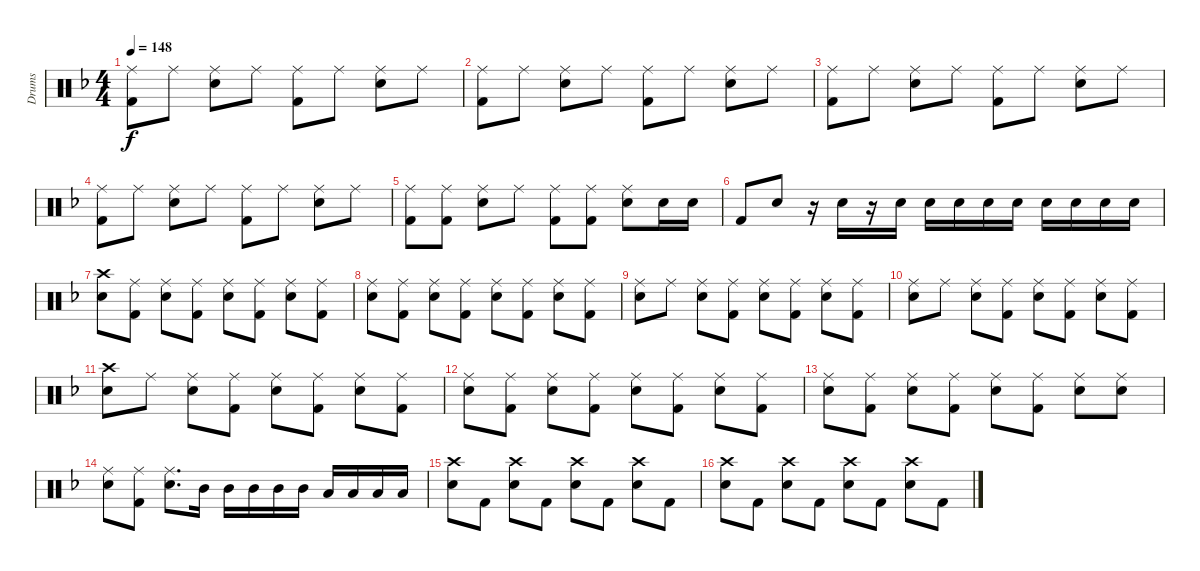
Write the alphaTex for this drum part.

\track ("Drums" "Drums") {instrument percussion}
\staff {score}
\articulation defaults
\ts (4 4)
\tempo 148
\clef neutral
\ks f
("Ride (middle)" "Kick (hit) 2").8{dy f} "Ride (middle)".8 ("Ride (middle)" "Snare (hit) 2").8 "Ride (middle)".8 ("Ride (middle)" "Kick (hit) 2").8 "Ride (middle)".8 ("Ride (middle)" "Snare (hit) 2").8 "Ride (middle)".8 |
("Ride (middle)" "Kick (hit) 2").8 "Ride (middle)".8 ("Ride (middle)" "Snare (hit) 2").8 "Ride (middle)".8 ("Ride (middle)" "Kick (hit) 2").8 "Ride (middle)".8 ("Ride (middle)" "Snare (hit) 2").8 "Ride (middle)".8 |
("Ride (middle)" "Kick (hit) 2").8 "Ride (middle)".8 ("Ride (middle)" "Snare (hit) 2").8 "Ride (middle)".8 ("Ride (middle)" "Kick (hit) 2").8 "Ride (middle)".8 ("Ride (middle)" "Snare (hit) 2").8 "Ride (middle)".8 |
("Ride (middle)" "Kick (hit) 2").8 "Ride (middle)".8 ("Ride (middle)" "Snare (hit) 2").8 "Ride (middle)".8 ("Ride (middle)" "Kick (hit) 2").8 "Ride (middle)".8 ("Ride (middle)" "Snare (hit) 2").8 "Ride (middle)".8 |
("Ride (middle)" "Kick (hit) 2").8 ("Ride (middle)" "Kick (hit) 2").8 ("Ride (middle)" "Snare (hit) 2").8 "Ride (middle)".8 ("Ride (middle)" "Kick (hit) 2").8 ("Ride (middle)" "Kick (hit) 2").8 ("Ride (middle)" "Snare (hit) 2").8 "Snare (hit) 2".16 "Snare (hit) 2".16 |
"Kick (hit) 2".8 "Snare (hit) 2".8 r.16 "Snare (hit) 2".16 r.16 "Snare (hit) 2".16 "Snare (hit) 2".16 "Snare (hit) 2".16 "Snare (hit) 2".16 "Snare (hit) 2".16 "Snare (hit) 2".16 "Snare (hit) 2".16 "Snare (hit) 2".16 "Snare (hit) 2".16 |
("Crash high (hit)" "Snare (hit) 2").8 ("Ride (middle)" "Kick (hit) 2").8 ("Ride (middle)" "Snare (hit) 2").8 ("Ride (middle)" "Kick (hit) 2").8 ("Ride (middle)" "Snare (hit) 2").8 ("Ride (middle)" "Kick (hit) 2").8 ("Ride (middle)" "Snare (hit) 2").8 ("Ride (middle)" "Kick (hit) 2").8 |
("Ride (middle)" "Snare (hit) 2").8 ("Ride (middle)" "Kick (hit) 2").8 ("Ride (middle)" "Snare (hit) 2").8 ("Ride (middle)" "Kick (hit) 2").8 ("Ride (middle)" "Snare (hit) 2").8 ("Ride (middle)" "Kick (hit) 2").8 ("Ride (middle)" "Snare (hit) 2").8 ("Ride (middle)" "Kick (hit) 2").8 |
("Ride (middle)" "Snare (hit) 2").8 "Ride (middle)".8 ("Ride (middle)" "Snare (hit) 2").8 ("Ride (middle)" "Kick (hit) 2").8 ("Ride (middle)" "Snare (hit) 2").8 ("Ride (middle)" "Kick (hit) 2").8 ("Ride (middle)" "Snare (hit) 2").8 ("Ride (middle)" "Kick (hit) 2").8 |
("Ride (middle)" "Snare (hit) 2").8 "Ride (middle)".8 ("Ride (middle)" "Snare (hit) 2").8 ("Ride (middle)" "Kick (hit) 2").8 ("Ride (middle)" "Snare (hit) 2").8 ("Ride (middle)" "Kick (hit) 2").8 ("Ride (middle)" "Snare (hit) 2").8 ("Ride (middle)" "Kick (hit) 2").8 |
("Crash high (hit)" "Snare (hit) 2").8 "Ride (middle)".8 ("Ride (middle)" "Snare (hit) 2").8 ("Ride (middle)" "Kick (hit) 2").8 ("Ride (middle)" "Snare (hit) 2").8 ("Ride (middle)" "Kick (hit) 2").8 ("Ride (middle)" "Snare (hit) 2").8 ("Ride (middle)" "Kick (hit) 2").8 |
("Ride (middle)" "Snare (hit) 2").8 ("Ride (middle)" "Kick (hit) 2").8 ("Ride (middle)" "Snare (hit) 2").8 ("Ride (middle)" "Kick (hit) 2").8 ("Ride (middle)" "Snare (hit) 2").8 ("Ride (middle)" "Kick (hit) 2").8 ("Ride (middle)" "Snare (hit) 2").8 ("Ride (middle)" "Kick (hit) 2").8 |
("Ride (middle)" "Snare (hit) 2").8 ("Ride (middle)" "Kick (hit) 2").8 ("Ride (middle)" "Snare (hit) 2").8 ("Ride (middle)" "Kick (hit) 2").8 ("Ride (middle)" "Snare (hit) 2").8 ("Ride (middle)" "Kick (hit) 2").8 ("Ride (middle)" "Snare (hit) 2").8 ("Ride (middle)" "Snare (hit) 2").8 |
("Ride (middle)" "Snare (hit) 2").8 ("Ride (middle)" "Kick (hit) 2").8 ("Ride (middle)" "Snare (hit) 2").8{d} "Mid Tom (hit)".16 "Mid Tom (hit)".16 "Mid Tom (hit)".16 "Mid Tom (hit)".16 "Mid Tom (hit)".16 "Low Tom (hit)".16 "Low Tom (hit)".16 "Low Tom (hit)".16 "Low Tom (hit)".16 |
("Crash high (hit)" "Snare (hit) 2").8 "Kick (hit) 2".8 ("Crash high (hit)" "Snare (hit) 2").8 "Kick (hit) 2".8 ("Crash high (hit)" "Snare (hit) 2").8 "Kick (hit) 2".8 ("Crash high (hit)" "Snare (hit) 2").8 "Kick (hit) 2".8 |
("Crash high (hit)" "Snare (hit) 2").8 "Kick (hit) 2".8 ("Crash high (hit)" "Snare (hit) 2").8 "Kick (hit) 2".8 ("Crash high (hit)" "Snare (hit) 2").8 "Kick (hit) 2".8 ("Crash high (hit)" "Snare (hit) 2").8 "Kick (hit) 2".8
